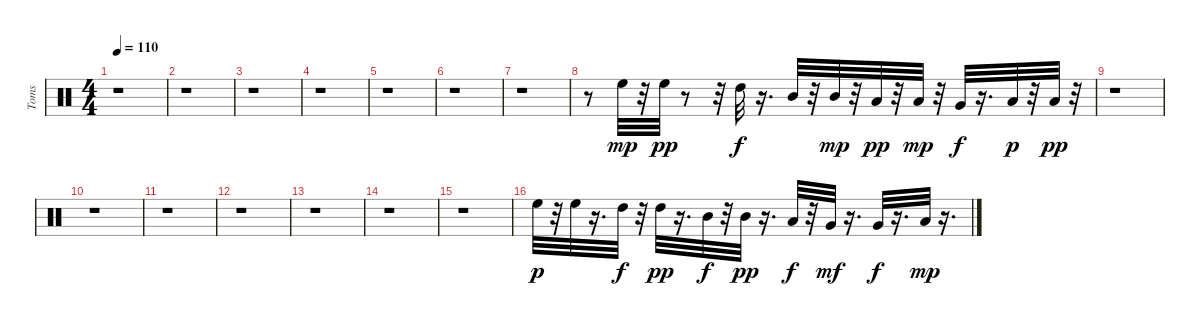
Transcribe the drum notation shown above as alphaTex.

\track ("Toms" "Toms") {instrument percussion}
\staff {score}
\articulation defaults
\ts (4 4)
\tempo 110
\clef neutral
\ks c
r.1{dy mp} |
r.1 |
r.1 |
r.1 |
r.1 |
r.1 |
r.1 |
r.8 "High Floor Tom (hit)".32 r.32 "High Floor Tom (hit)".32{dy pp} r.8 r.32 "High Tom (hit)".32{dy f} r.16{d} "Mid Tom (hit)".32 r.32 "Mid Tom (hit)".32{dy mp} r.32 "Low Tom (hit)".32{dy pp} r.32 "Low Tom (hit)".32{dy mp} r.32 "Very Low Tom (hit)".32{dy f} r.16{d} "Low Floor Tom (hit)".32{dy p} r.32 "Low Floor Tom (hit)".32{dy pp} r.32 |
r.1 |
r.1 |
r.1 |
r.1 |
r.1 |
r.1 |
r.1 |
"High Floor Tom (hit)".32{dy p} r.32 "High Floor Tom (hit)".32 r.16{d} "High Tom (hit)".32{dy f} r.32 "High Tom (hit)".32{dy pp} r.16{d} "Mid Tom (hit)".32{dy f} r.32 "Mid Tom (hit)".32{dy pp} r.16{d} "Low Tom (hit)".32{dy f} r.32 "Very Low Tom (hit)".32{dy mf} r.16{d} "Very Low Tom (hit)".32{dy f} r.16{d} "Low Floor Tom (hit)".32{dy mp} r.16{d}
